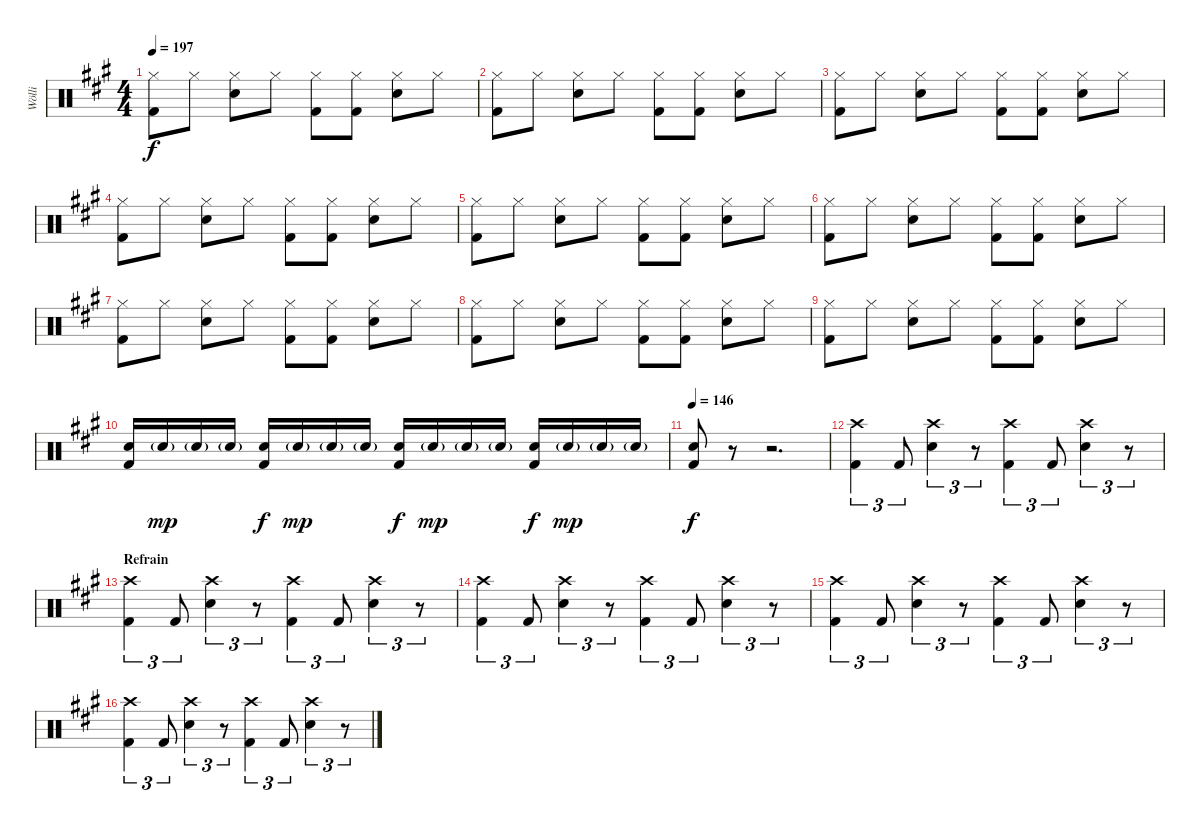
\track ("Wölli" "Wölli") {instrument percussion}
\staff {score}
\articulation defaults
\ts (4 4)
\tempo 197
\clef neutral
\ks a
("Hi-Hat (closed)" "Kick (hit) 2").8{dy f} "Hi-Hat (closed)".8 ("Hi-Hat (closed)" "Snare (hit) 2").8 "Hi-Hat (closed)".8 ("Hi-Hat (closed)" "Kick (hit) 2").8 ("Hi-Hat (closed)" "Kick (hit) 2").8 ("Hi-Hat (closed)" "Snare (hit) 2").8 "Hi-Hat (closed)".8 |
("Hi-Hat (closed)" "Kick (hit) 2").8 "Hi-Hat (closed)".8 ("Hi-Hat (closed)" "Snare (hit) 2").8 "Hi-Hat (closed)".8 ("Hi-Hat (closed)" "Kick (hit) 2").8 ("Hi-Hat (closed)" "Kick (hit) 2").8 ("Hi-Hat (closed)" "Snare (hit) 2").8 "Hi-Hat (closed)".8 |
("Hi-Hat (closed)" "Kick (hit) 2").8 "Hi-Hat (closed)".8 ("Hi-Hat (closed)" "Snare (hit) 2").8 "Hi-Hat (closed)".8 ("Hi-Hat (closed)" "Kick (hit) 2").8 ("Hi-Hat (closed)" "Kick (hit) 2").8 ("Hi-Hat (closed)" "Snare (hit) 2").8 "Hi-Hat (closed)".8 |
("Hi-Hat (closed)" "Kick (hit) 2").8 "Hi-Hat (closed)".8 ("Hi-Hat (closed)" "Snare (hit) 2").8 "Hi-Hat (closed)".8 ("Hi-Hat (closed)" "Kick (hit) 2").8 ("Hi-Hat (closed)" "Kick (hit) 2").8 ("Hi-Hat (closed)" "Snare (hit) 2").8 "Hi-Hat (closed)".8 |
("Hi-Hat (closed)" "Kick (hit) 2").8 "Hi-Hat (closed)".8 ("Hi-Hat (closed)" "Snare (hit) 2").8 "Hi-Hat (closed)".8 ("Hi-Hat (closed)" "Kick (hit) 2").8 ("Hi-Hat (closed)" "Kick (hit) 2").8 ("Hi-Hat (closed)" "Snare (hit) 2").8 "Hi-Hat (closed)".8 |
("Hi-Hat (closed)" "Kick (hit) 2").8 "Hi-Hat (closed)".8 ("Hi-Hat (closed)" "Snare (hit) 2").8 "Hi-Hat (closed)".8 ("Hi-Hat (closed)" "Kick (hit) 2").8 ("Hi-Hat (closed)" "Kick (hit) 2").8 ("Hi-Hat (closed)" "Snare (hit) 2").8 "Hi-Hat (closed)".8 |
("Hi-Hat (closed)" "Kick (hit) 2").8 "Hi-Hat (closed)".8 ("Hi-Hat (closed)" "Snare (hit) 2").8 "Hi-Hat (closed)".8 ("Hi-Hat (closed)" "Kick (hit) 2").8 ("Hi-Hat (closed)" "Kick (hit) 2").8 ("Hi-Hat (closed)" "Snare (hit) 2").8 "Hi-Hat (closed)".8 |
("Hi-Hat (closed)" "Kick (hit) 2").8 "Hi-Hat (closed)".8 ("Hi-Hat (closed)" "Snare (hit) 2").8 "Hi-Hat (closed)".8 ("Hi-Hat (closed)" "Kick (hit) 2").8 ("Hi-Hat (closed)" "Kick (hit) 2").8 ("Hi-Hat (closed)" "Snare (hit) 2").8 "Hi-Hat (closed)".8 |
("Hi-Hat (closed)" "Kick (hit) 2").8 "Hi-Hat (closed)".8 ("Hi-Hat (closed)" "Snare (hit) 2").8 "Hi-Hat (closed)".8 ("Hi-Hat (closed)" "Kick (hit) 2").8 ("Hi-Hat (closed)" "Kick (hit) 2").8 ("Hi-Hat (closed)" "Snare (hit) 2").8 "Hi-Hat (closed)".8 |
("Snare (hit) 2" "Kick (hit) 2").16 "Snare (hit) 2"{g}.16{dy mp} "Snare (hit) 2"{g}.16 "Snare (hit) 2"{g}.16 ("Snare (hit) 2" "Kick (hit) 2").16{dy f} "Snare (hit) 2"{g}.16{dy mp} "Snare (hit) 2"{g}.16 "Snare (hit) 2"{g}.16 ("Snare (hit) 2" "Kick (hit) 2").16{dy f} "Snare (hit) 2"{g}.16{dy mp} "Snare (hit) 2"{g}.16 "Snare (hit) 2"{g}.16 ("Snare (hit) 2" "Kick (hit) 2").16{dy f} "Snare (hit) 2"{g}.16{dy mp} "Snare (hit) 2"{g}.16 "Snare (hit) 2"{g}.16 |
\tempo 146
("Snare (hit) 2" "Kick (hit) 2").8{dy f} r.8 r.2{d} |
("Crash high (hit)" "Kick (hit) 2").4{tu (3 2)} "Kick (hit) 2".8{tu (3 2)} ("Crash high (hit)" "Snare (hit) 2").4{tu (3 2)} r.8{tu (3 2)} ("Crash high (hit)" "Kick (hit) 2").4{tu (3 2)} "Kick (hit) 2".8{tu (3 2)} ("Crash high (hit)" "Snare (hit) 2").4{tu (3 2)} r.8{tu (3 2)} |
\section ("" "Refrain")
("Crash high (hit)" "Kick (hit) 2").4{tu (3 2)} "Kick (hit) 2".8{tu (3 2)} ("Crash high (hit)" "Snare (hit) 2").4{tu (3 2)} r.8{tu (3 2)} ("Crash high (hit)" "Kick (hit) 2").4{tu (3 2)} "Kick (hit) 2".8{tu (3 2)} ("Crash high (hit)" "Snare (hit) 2").4{tu (3 2)} r.8{tu (3 2)} |
("Crash high (hit)" "Kick (hit) 2").4{tu (3 2)} "Kick (hit) 2".8{tu (3 2)} ("Crash high (hit)" "Snare (hit) 2").4{tu (3 2)} r.8{tu (3 2)} ("Crash high (hit)" "Kick (hit) 2").4{tu (3 2)} "Kick (hit) 2".8{tu (3 2)} ("Crash high (hit)" "Snare (hit) 2").4{tu (3 2)} r.8{tu (3 2)} |
("Crash high (hit)" "Kick (hit) 2").4{tu (3 2)} "Kick (hit) 2".8{tu (3 2)} ("Crash high (hit)" "Snare (hit) 2").4{tu (3 2)} r.8{tu (3 2)} ("Crash high (hit)" "Kick (hit) 2").4{tu (3 2)} "Kick (hit) 2".8{tu (3 2)} ("Crash high (hit)" "Snare (hit) 2").4{tu (3 2)} r.8{tu (3 2)} |
("Crash high (hit)" "Kick (hit) 2").4{tu (3 2)} "Kick (hit) 2".8{tu (3 2)} ("Crash high (hit)" "Snare (hit) 2").4{tu (3 2)} r.8{tu (3 2)} ("Crash high (hit)" "Kick (hit) 2").4{tu (3 2)} "Kick (hit) 2".8{tu (3 2)} ("Crash high (hit)" "Snare (hit) 2").4{tu (3 2)} r.8{tu (3 2)}
